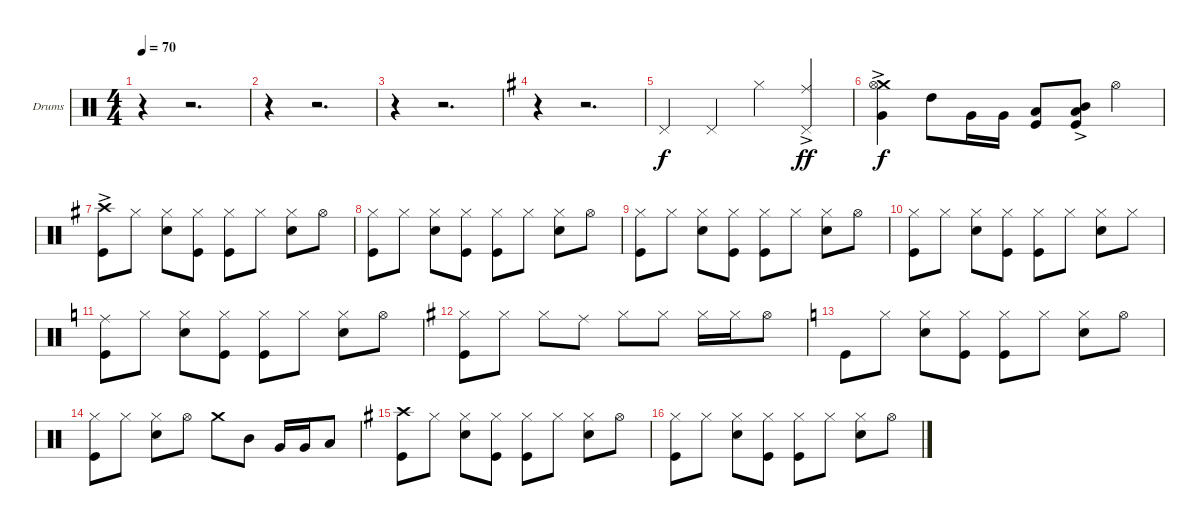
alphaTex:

\bracketExtendMode groupsimilarinstruments
\firstSystemTrackNameOrientation horizontal
\otherSystemsTrackNameOrientation horizontal
\track ("Drumkit" "Drums") {instrument percussion}
\staff {score}
\articulation defaults
\ts (4 4)
\tempo 70
\clef neutral
\ks c
r.4{dy f} r.2{d} |
r.4 r.2{d} |
r.4 r.2{d} |
\ks g
r.4 r.2{d} |
"Pedal Hi-Hat (hit)".4 "Pedal Hi-Hat (hit)".4 "Hi-Hat (closed)".4 ("Ride (middle)"{ac} "Pedal Hi-Hat (hit)"{ac}).4{dy ff} |
("Crash medium (hit)" "Very Low Tom (hit)"{ac} "Hi-Hat (open)").4{dy f} "High Tom (hit)".8 "Very Low Tom (hit)".16 "Very Low Tom (hit)".16 ("Low Tom (hit)" "Kick (hit)").8 ("Low Tom (hit)"{ac} "Kick (hit)"{ac} "Mid Tom (hit)").8 "Hi-Hat (open)".4 |
("Crash high (hit)"{ac} "Kick (hit)").8 "Hi-Hat (closed)".8 ("Hi-Hat (closed)" "Snare (hit) 2").8 ("Hi-Hat (closed)" "Kick (hit)").8 ("Hi-Hat (closed)" "Kick (hit)").8 "Hi-Hat (closed)".8 ("Hi-Hat (closed)" "Snare (hit) 2").8 "Hi-Hat (open)".8 |
("Hi-Hat (closed)" "Kick (hit)").8 "Hi-Hat (closed)".8 ("Hi-Hat (closed)" "Snare (hit) 2").8 ("Hi-Hat (closed)" "Kick (hit)").8 ("Hi-Hat (closed)" "Kick (hit)").8 "Hi-Hat (closed)".8 ("Hi-Hat (closed)" "Snare (hit) 2").8 "Hi-Hat (open)".8 |
("Hi-Hat (closed)" "Kick (hit)").8 "Hi-Hat (closed)".8 ("Hi-Hat (closed)" "Snare (hit) 2").8 ("Hi-Hat (closed)" "Kick (hit)").8 ("Hi-Hat (closed)" "Kick (hit)").8 "Hi-Hat (closed)".8 ("Hi-Hat (closed)" "Snare (hit) 2").8 "Hi-Hat (open)".8 |
("Hi-Hat (closed)" "Kick (hit)").8 "Hi-Hat (closed)".8 ("Hi-Hat (closed)" "Snare (hit) 2").8 ("Hi-Hat (closed)" "Kick (hit)").8 ("Hi-Hat (closed)" "Kick (hit)").8 "Hi-Hat (closed)".8 ("Hi-Hat (closed)" "Snare (hit) 2").8 "Hi-Hat (closed)".8 |
\ks c
("Ride (middle)" "Kick (hit)").8 "Hi-Hat (closed)".8 ("Hi-Hat (closed)" "Snare (hit) 2").8 ("Hi-Hat (closed)" "Kick (hit)").8 ("Hi-Hat (closed)" "Kick (hit)").8 "Hi-Hat (closed)".8 ("Hi-Hat (closed)" "Snare (hit) 2").8 "Hi-Hat (open)".8 |
\ks g
("Hi-Hat (closed)" "Kick (hit)").8 "Hi-Hat (closed)".8 "Hi-Hat (closed)".8 "Ride (middle)".8 "Hi-Hat (closed)".8 "Hi-Hat (closed)".8 "Hi-Hat (closed)".16 "Hi-Hat (closed)".16 "Hi-Hat (open)".8 |
\ks c "Kick (hit)".8 "Hi-Hat (closed)".8
("Hi-Hat (closed)" "Snare (hit) 2").8 ("Hi-Hat (closed)" "Kick (hit)").8 ("Hi-Hat (closed)" "Kick (hit)").8 "Hi-Hat (closed)".8 ("Hi-Hat (closed)" "Snare (hit) 2").8 "Hi-Hat (open)".8 |
("Hi-Hat (closed)" "Kick (hit)").8 "Hi-Hat (closed)".8 ("Hi-Hat (closed)" "Snare (hit) 2").8 "Hi-Hat (open)".8 "Crash medium (hit)".8 "Mid Tom (hit)".8 "Very Low Tom (hit)".16 "Very Low Tom (hit)".16 "Low Tom (hit)".8 |
\ks g
("Crash high (hit)" "Kick (hit)").8 "Hi-Hat (closed)".8 ("Hi-Hat (closed)" "Snare (hit) 2").8 ("Hi-Hat (closed)" "Kick (hit)").8 ("Hi-Hat (closed)" "Kick (hit)").8 "Hi-Hat (closed)".8 ("Hi-Hat (closed)" "Snare (hit) 2").8 "Hi-Hat (open)".8 |
("Hi-Hat (closed)" "Kick (hit)").8 "Hi-Hat (closed)".8 ("Hi-Hat (closed)" "Snare (hit) 2").8 ("Hi-Hat (closed)" "Kick (hit)").8 ("Hi-Hat (closed)" "Kick (hit)").8 "Hi-Hat (closed)".8 ("Hi-Hat (closed)" "Snare (hit) 2").8 "Hi-Hat (open)".8
